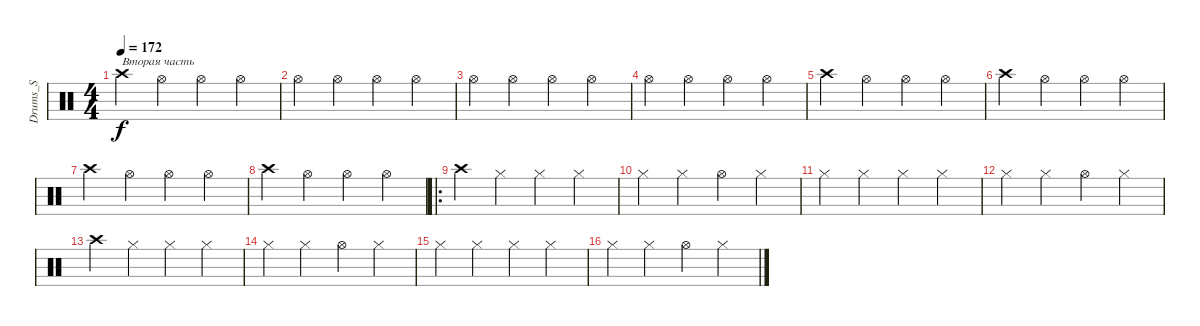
\track ("Drums_S" "Drums_S") {instrument percussion}
\staff {score}
\articulation defaults
\ts (4 4)
\tempo 172
\clef neutral
\ks c "Crash high (hit)".4{txt "Вторая часть" dy f} "Hi-Hat (open)".4 "Hi-Hat (open)".4 "Hi-Hat (open)".4
|
"Hi-Hat (open)".4 "Hi-Hat (open)".4 "Hi-Hat (open)".4 "Hi-Hat (open)".4 |
"Hi-Hat (open)".4 "Hi-Hat (open)".4 "Hi-Hat (open)".4 "Hi-Hat (open)".4 |
"Hi-Hat (open)".4 "Hi-Hat (open)".4 "Hi-Hat (open)".4 "Hi-Hat (open)".4 |
"Crash high (hit)".4 "Hi-Hat (open)".4 "Hi-Hat (open)".4 "Hi-Hat (open)".4 |
"Crash high (hit)".4 "Hi-Hat (open)".4 "Hi-Hat (open)".4 "Hi-Hat (open)".4 |
"Crash high (hit)".4 "Hi-Hat (open)".4 "Hi-Hat (open)".4 "Hi-Hat (open)".4 |
"Crash high (hit)".4 "Hi-Hat (open)".4 "Hi-Hat (open)".4 "Hi-Hat (open)".4 |
\ro "Crash high (hit)".4 "Hi-Hat (closed)".4 "Hi-Hat (closed)".4 "Hi-Hat (closed)".4
|
"Hi-Hat (closed)".4 "Hi-Hat (closed)".4 "Hi-Hat (open)".4 "Hi-Hat (closed)".4 |
"Hi-Hat (closed)".4 "Hi-Hat (closed)".4 "Hi-Hat (closed)".4 "Hi-Hat (closed)".4 |
"Hi-Hat (closed)".4 "Hi-Hat (closed)".4 "Hi-Hat (open)".4 "Hi-Hat (closed)".4 |
"Crash high (hit)".4 "Hi-Hat (closed)".4 "Hi-Hat (closed)".4 "Hi-Hat (closed)".4 |
"Hi-Hat (closed)".4 "Hi-Hat (closed)".4 "Hi-Hat (open)".4 "Hi-Hat (closed)".4 |
"Hi-Hat (closed)".4 "Hi-Hat (closed)".4 "Hi-Hat (closed)".4 "Hi-Hat (closed)".4 |
"Hi-Hat (closed)".4 "Hi-Hat (closed)".4 "Hi-Hat (open)".4 "Hi-Hat (closed)".4
